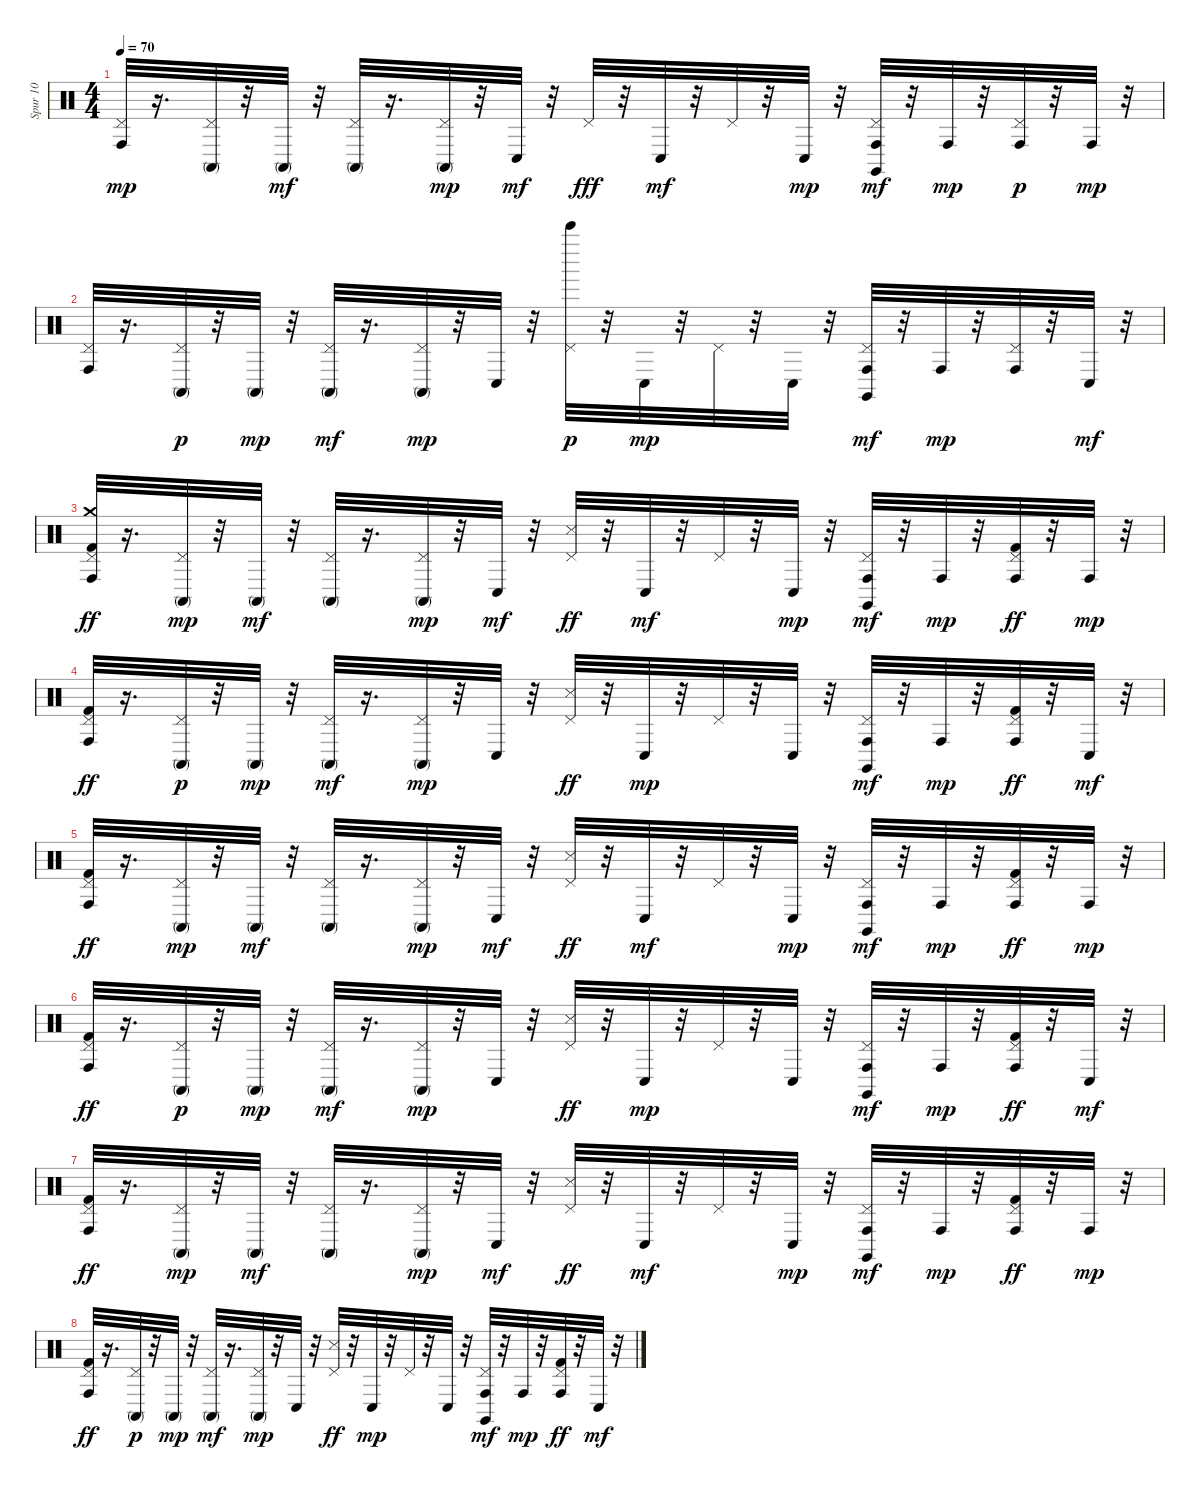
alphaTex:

\track ("Spur 10" "Spur 10") {instrument percussion}
\staff {score}
\articulation defaults
\ts (4 4)
\tempo 70
\clef neutral
\ks c
("Pedal Hi-Hat (hit)" "Conga high (hit)").32{dy mp} r.16{d} ("Pedal Hi-Hat (hit)" "Conga high (mute)").32 r.32 "Conga high (mute)".32{dy mf} r.32 ("Pedal Hi-Hat (hit)" "Conga high (mute)").32 r.16{d} ("Pedal Hi-Hat (hit)" "Conga high (mute)").32{dy mp} r.32 "Conga low (hit)".32{dy mf} r.32 "Pedal Hi-Hat (hit)".32{dy fff} r.32 "Conga low (hit)".32{dy mf} r.32 "Pedal Hi-Hat (hit)".32 r.32 "Conga low (hit)".32{dy mp} r.32 ("Pedal Hi-Hat (hit)" "Conga high (hit)" "Claves (hit)").32{dy mf} r.32 "Conga high (hit)".32{dy mp} r.32 ("Pedal Hi-Hat (hit)" "Conga high (hit)").32{dy p} r.32 "Conga high (hit)".32{dy mp} r.32 |
("Pedal Hi-Hat (hit)" "Conga high (hit)").32 r.16{d} ("Pedal Hi-Hat (hit)" "Conga high (mute)").32{dy p} r.32 "Conga high (mute)".32{dy mp} r.32 ("Pedal Hi-Hat (hit)" "Conga high (mute)").32{dy mf} r.16{d} ("Pedal Hi-Hat (hit)" "Conga high (mute)").32{dy mp} r.32 "Conga low (hit)".32 r.32 ("Pedal Hi-Hat (hit)" "Bell Tree (hit)").32{dy p} r.32 "Conga low (hit)".32{dy mp} r.32 "Pedal Hi-Hat (hit)".32 r.32 "Conga low (hit)".32 r.32 ("Pedal Hi-Hat (hit)" "Conga high (hit)" "Claves (hit)").32{dy mf} r.32 "Conga high (hit)".32{dy mp} r.32 ("Pedal Hi-Hat (hit)" "Conga high (hit)").32 r.32 "Conga low (hit)".32{dy mf} r.32 |
("Pedal Hi-Hat (hit)" "Conga high (hit)" "Kick (hit) 2" "Crash medium (hit)").32{dy ff} r.16{d} ("Pedal Hi-Hat (hit)" "Conga high (mute)").32{dy mp} r.32 "Conga high (mute)".32{dy mf} r.32 ("Pedal Hi-Hat (hit)" "Conga high (mute)").32 r.16{d} ("Pedal Hi-Hat (hit)" "Conga high (mute)").32{dy mp} r.32 "Conga low (hit)".32{dy mf} r.32 ("Pedal Hi-Hat (hit)" "Snare (side stick) 3").32{dy ff} r.32 "Conga low (hit)".32{dy mf} r.32 "Pedal Hi-Hat (hit)".32 r.32 "Conga low (hit)".32{dy mp} r.32 ("Pedal Hi-Hat (hit)" "Conga high (hit)" "Claves (hit)").32{dy mf} r.32 "Conga high (hit)".32{dy mp} r.32 ("Pedal Hi-Hat (hit)" "Conga high (hit)" "Kick (hit) 2").32{dy ff} r.32 "Conga high (hit)".32{dy mp} r.32 |
("Pedal Hi-Hat (hit)" "Conga high (hit)" "Kick (hit) 2").32{dy ff} r.16{d} ("Pedal Hi-Hat (hit)" "Conga high (mute)").32{dy p} r.32 "Conga high (mute)".32{dy mp} r.32 ("Pedal Hi-Hat (hit)" "Conga high (mute)").32{dy mf} r.16{d} ("Pedal Hi-Hat (hit)" "Conga high (mute)").32{dy mp} r.32 "Conga low (hit)".32 r.32 ("Pedal Hi-Hat (hit)" "Snare (side stick) 3").32{dy ff} r.32 "Conga low (hit)".32{dy mp} r.32 "Pedal Hi-Hat (hit)".32 r.32 "Conga low (hit)".32 r.32 ("Pedal Hi-Hat (hit)" "Conga high (hit)" "Claves (hit)").32{dy mf} r.32 "Conga high (hit)".32{dy mp} r.32 ("Pedal Hi-Hat (hit)" "Conga high (hit)" "Kick (hit) 2").32{dy ff} r.32 "Conga low (hit)".32{dy mf} r.32 |
("Pedal Hi-Hat (hit)" "Conga high (hit)" "Kick (hit) 2").32{dy ff} r.16{d} ("Pedal Hi-Hat (hit)" "Conga high (mute)").32{dy mp} r.32 "Conga high (mute)".32{dy mf} r.32 ("Pedal Hi-Hat (hit)" "Conga high (mute)").32 r.16{d} ("Pedal Hi-Hat (hit)" "Conga high (mute)").32{dy mp} r.32 "Conga low (hit)".32{dy mf} r.32 ("Pedal Hi-Hat (hit)" "Snare (side stick) 3").32{dy ff} r.32 "Conga low (hit)".32{dy mf} r.32 "Pedal Hi-Hat (hit)".32 r.32 "Conga low (hit)".32{dy mp} r.32 ("Pedal Hi-Hat (hit)" "Conga high (hit)" "Claves (hit)").32{dy mf} r.32 "Conga high (hit)".32{dy mp} r.32 ("Pedal Hi-Hat (hit)" "Conga high (hit)" "Kick (hit) 2").32{dy ff} r.32 "Conga high (hit)".32{dy mp} r.32 |
("Pedal Hi-Hat (hit)" "Conga high (hit)" "Kick (hit) 2").32{dy ff} r.16{d} ("Pedal Hi-Hat (hit)" "Conga high (mute)").32{dy p} r.32 "Conga high (mute)".32{dy mp} r.32 ("Pedal Hi-Hat (hit)" "Conga high (mute)").32{dy mf} r.16{d} ("Pedal Hi-Hat (hit)" "Conga high (mute)").32{dy mp} r.32 "Conga low (hit)".32 r.32 ("Pedal Hi-Hat (hit)" "Snare (side stick) 3").32{dy ff} r.32 "Conga low (hit)".32{dy mp} r.32 "Pedal Hi-Hat (hit)".32 r.32 "Conga low (hit)".32 r.32 ("Pedal Hi-Hat (hit)" "Conga high (hit)" "Claves (hit)").32{dy mf} r.32 "Conga high (hit)".32{dy mp} r.32 ("Pedal Hi-Hat (hit)" "Conga high (hit)" "Kick (hit) 2").32{dy ff} r.32 "Conga low (hit)".32{dy mf} r.32 |
("Pedal Hi-Hat (hit)" "Conga high (hit)" "Kick (hit) 2").32{dy ff} r.16{d} ("Pedal Hi-Hat (hit)" "Conga high (mute)").32{dy mp} r.32 "Conga high (mute)".32{dy mf} r.32 ("Pedal Hi-Hat (hit)" "Conga high (mute)").32 r.16{d} ("Pedal Hi-Hat (hit)" "Conga high (mute)").32{dy mp} r.32 "Conga low (hit)".32{dy mf} r.32 ("Pedal Hi-Hat (hit)" "Snare (side stick) 3").32{dy ff} r.32 "Conga low (hit)".32{dy mf} r.32 "Pedal Hi-Hat (hit)".32 r.32 "Conga low (hit)".32{dy mp} r.32 ("Pedal Hi-Hat (hit)" "Conga high (hit)" "Claves (hit)").32{dy mf} r.32 "Conga high (hit)".32{dy mp} r.32 ("Pedal Hi-Hat (hit)" "Conga high (hit)" "Kick (hit) 2").32{dy ff} r.32 "Conga high (hit)".32{dy mp} r.32 |
("Pedal Hi-Hat (hit)" "Conga high (hit)" "Kick (hit) 2").32{dy ff} r.16{d} ("Pedal Hi-Hat (hit)" "Conga high (mute)").32{dy p} r.32 "Conga high (mute)".32{dy mp} r.32 ("Pedal Hi-Hat (hit)" "Conga high (mute)").32{dy mf} r.16{d} ("Pedal Hi-Hat (hit)" "Conga high (mute)").32{dy mp} r.32 "Conga low (hit)".32 r.32 ("Pedal Hi-Hat (hit)" "Snare (side stick) 3").32{dy ff} r.32 "Conga low (hit)".32{dy mp} r.32 "Pedal Hi-Hat (hit)".32 r.32 "Conga low (hit)".32 r.32 ("Pedal Hi-Hat (hit)" "Conga high (hit)" "Claves (hit)").32{dy mf} r.32 "Conga high (hit)".32{dy mp} r.32 ("Pedal Hi-Hat (hit)" "Conga high (hit)" "Kick (hit) 2").32{dy ff} r.32 "Conga low (hit)".32{dy mf} r.32
